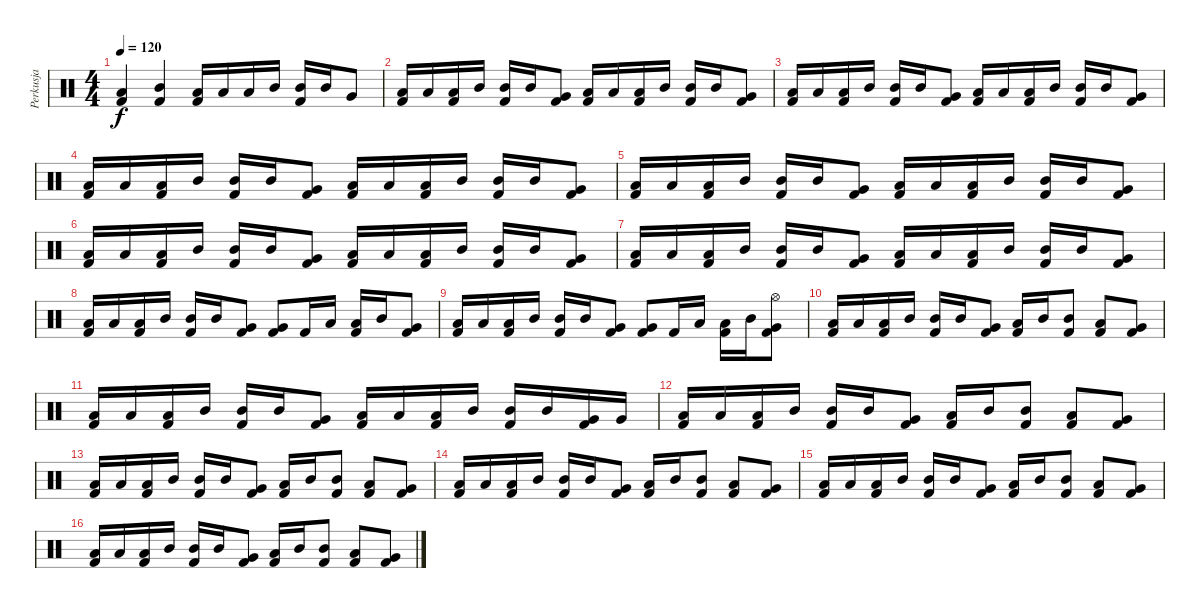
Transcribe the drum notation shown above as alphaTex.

\track ("Perkusja" "Perkusja") {instrument percussion}
\staff {score}
\articulation defaults
\ts (4 4)
\tempo 120
\clef neutral
\ks c
("Low Tom (hit)" "Kick (hit) 2").4{dy f} ("Mid Tom (hit)" "Kick (hit) 2").4 ("Low Tom (hit)" "Kick (hit) 2").16 "Low Tom (hit)".16 "Low Tom (hit)".16 "Mid Tom (hit)".16 ("Mid Tom (hit)" "Kick (hit) 2").16 "Mid Tom (hit)".16 "Very Low Tom (hit)".8 |
("Low Tom (hit)" "Kick (hit) 2").16 "Low Tom (hit)".16 ("Low Tom (hit)" "Kick (hit) 2").16 "Mid Tom (hit)".16 ("Mid Tom (hit)" "Kick (hit) 2").16 "Mid Tom (hit)".16 ("Very Low Tom (hit)" "Kick (hit) 2").8 ("Low Tom (hit)" "Kick (hit) 2").16 "Low Tom (hit)".16 ("Low Tom (hit)" "Kick (hit) 2").16 "Mid Tom (hit)".16 ("Mid Tom (hit)" "Kick (hit) 2").16 "Mid Tom (hit)".16 ("Very Low Tom (hit)" "Kick (hit) 2").8 |
("Low Tom (hit)" "Kick (hit) 2").16 "Low Tom (hit)".16 ("Low Tom (hit)" "Kick (hit) 2").16 "Mid Tom (hit)".16 ("Mid Tom (hit)" "Kick (hit) 2").16 "Mid Tom (hit)".16 ("Very Low Tom (hit)" "Kick (hit) 2").8 ("Low Tom (hit)" "Kick (hit) 2").16 "Low Tom (hit)".16 ("Low Tom (hit)" "Kick (hit) 2").16 "Mid Tom (hit)".16 ("Mid Tom (hit)" "Kick (hit) 2").16 "Mid Tom (hit)".16 ("Very Low Tom (hit)" "Kick (hit) 2").8 |
("Low Tom (hit)" "Kick (hit) 2").16 "Low Tom (hit)".16 ("Low Tom (hit)" "Kick (hit) 2").16 "Mid Tom (hit)".16 ("Mid Tom (hit)" "Kick (hit) 2").16 "Mid Tom (hit)".16 ("Very Low Tom (hit)" "Kick (hit) 2").8 ("Low Tom (hit)" "Kick (hit) 2").16 "Low Tom (hit)".16 ("Low Tom (hit)" "Kick (hit) 2").16 "Mid Tom (hit)".16 ("Mid Tom (hit)" "Kick (hit) 2").16 "Mid Tom (hit)".16 ("Very Low Tom (hit)" "Kick (hit) 2").8 |
("Low Tom (hit)" "Kick (hit) 2").16 "Low Tom (hit)".16 ("Low Tom (hit)" "Kick (hit) 2").16 "Mid Tom (hit)".16 ("Mid Tom (hit)" "Kick (hit) 2").16 "Mid Tom (hit)".16 ("Very Low Tom (hit)" "Kick (hit) 2").8 ("Low Tom (hit)" "Kick (hit) 2").16 "Low Tom (hit)".16 ("Low Tom (hit)" "Kick (hit) 2").16 "Mid Tom (hit)".16 ("Mid Tom (hit)" "Kick (hit) 2").16 "Mid Tom (hit)".16 ("Very Low Tom (hit)" "Kick (hit) 2").8 |
("Low Tom (hit)" "Kick (hit) 2").16 "Low Tom (hit)".16 ("Low Tom (hit)" "Kick (hit) 2").16 "Mid Tom (hit)".16 ("Mid Tom (hit)" "Kick (hit) 2").16 "Mid Tom (hit)".16 ("Very Low Tom (hit)" "Kick (hit) 2").8 ("Low Tom (hit)" "Kick (hit) 2").16 "Low Tom (hit)".16 ("Low Tom (hit)" "Kick (hit) 2").16 "Mid Tom (hit)".16 ("Mid Tom (hit)" "Kick (hit) 2").16 "Mid Tom (hit)".16 ("Very Low Tom (hit)" "Kick (hit) 2").8 |
("Low Tom (hit)" "Kick (hit) 2").16 "Low Tom (hit)".16 ("Low Tom (hit)" "Kick (hit) 2").16 "Mid Tom (hit)".16 ("Mid Tom (hit)" "Kick (hit) 2").16 "Mid Tom (hit)".16 ("Very Low Tom (hit)" "Kick (hit) 2").8 ("Low Tom (hit)" "Kick (hit) 2").16 "Low Tom (hit)".16 ("Low Tom (hit)" "Kick (hit) 2").16 "Mid Tom (hit)".16 ("Mid Tom (hit)" "Kick (hit) 2").16 "Mid Tom (hit)".16 ("Very Low Tom (hit)" "Kick (hit) 2").8 |
("Low Tom (hit)" "Kick (hit) 2").16 "Low Tom (hit)".16 ("Low Tom (hit)" "Kick (hit) 2").16 "Mid Tom (hit)".16 ("Mid Tom (hit)" "Kick (hit) 2").16 "Mid Tom (hit)".16 ("Very Low Tom (hit)" "Kick (hit) 2").8 ("Very Low Tom (hit)" "Kick (hit) 2").8 "Kick (hit) 2".16 "Low Tom (hit)".16 ("Low Tom (hit)" "Kick (hit) 2").16 "Mid Tom (hit)".16 ("Very Low Tom (hit)" "Kick (hit) 2").8 |
("Low Tom (hit)" "Kick (hit) 2").16 "Low Tom (hit)".16 ("Low Tom (hit)" "Kick (hit) 2").16 "Mid Tom (hit)".16 ("Mid Tom (hit)" "Kick (hit) 2").16 "Mid Tom (hit)".16 ("Very Low Tom (hit)" "Kick (hit) 2").8 ("Very Low Tom (hit)" "Kick (hit) 2").8 "Kick (hit) 2".16 "Low Tom (hit)".16 ("Low Tom (hit)" "Kick (hit) 2").16 "Mid Tom (hit)".16 ("Hi-Hat (open)" "Very Low Tom (hit)" "Kick (hit) 2").8 |
("Low Tom (hit)" "Kick (hit) 2").16 "Low Tom (hit)".16 ("Low Tom (hit)" "Kick (hit) 2").16 "Mid Tom (hit)".16 ("Mid Tom (hit)" "Kick (hit) 2").16 "Mid Tom (hit)".16 ("Very Low Tom (hit)" "Kick (hit) 2").8 ("Low Tom (hit)" "Kick (hit) 2").16 "Mid Tom (hit)".16 ("Mid Tom (hit)" "Kick (hit) 2").8 ("Low Tom (hit)" "Kick (hit) 2").8 ("Very Low Tom (hit)" "Kick (hit) 2").8 |
("Low Tom (hit)" "Kick (hit) 2").16 "Low Tom (hit)".16 ("Low Tom (hit)" "Kick (hit) 2").16 "Mid Tom (hit)".16 ("Mid Tom (hit)" "Kick (hit) 2").16 "Mid Tom (hit)".16 ("Very Low Tom (hit)" "Kick (hit) 2").8 ("Low Tom (hit)" "Kick (hit) 2").16 "Low Tom (hit)".16 ("Low Tom (hit)" "Kick (hit) 2").16 "Mid Tom (hit)".16 ("Mid Tom (hit)" "Kick (hit) 2").16 "Mid Tom (hit)".16 ("Very Low Tom (hit)" "Kick (hit) 2").16 "Very Low Tom (hit)".16 |
("Low Tom (hit)" "Kick (hit) 2").16 "Low Tom (hit)".16 ("Low Tom (hit)" "Kick (hit) 2").16 "Mid Tom (hit)".16 ("Mid Tom (hit)" "Kick (hit) 2").16 "Mid Tom (hit)".16 ("Very Low Tom (hit)" "Kick (hit) 2").8 ("Low Tom (hit)" "Kick (hit) 2").16 "Mid Tom (hit)".16 ("Mid Tom (hit)" "Kick (hit) 2").8 ("Low Tom (hit)" "Kick (hit) 2").8 ("Very Low Tom (hit)" "Kick (hit) 2").8 |
("Low Tom (hit)" "Kick (hit) 2").16 "Low Tom (hit)".16 ("Low Tom (hit)" "Kick (hit) 2").16 "Mid Tom (hit)".16 ("Mid Tom (hit)" "Kick (hit) 2").16 "Mid Tom (hit)".16 ("Very Low Tom (hit)" "Kick (hit) 2").8 ("Low Tom (hit)" "Kick (hit) 2").16 "Mid Tom (hit)".16 ("Mid Tom (hit)" "Kick (hit) 2").8 ("Low Tom (hit)" "Kick (hit) 2").8 ("Very Low Tom (hit)" "Kick (hit) 2").8 |
("Low Tom (hit)" "Kick (hit) 2").16 "Low Tom (hit)".16 ("Low Tom (hit)" "Kick (hit) 2").16 "Mid Tom (hit)".16 ("Mid Tom (hit)" "Kick (hit) 2").16 "Mid Tom (hit)".16 ("Very Low Tom (hit)" "Kick (hit) 2").8 ("Low Tom (hit)" "Kick (hit) 2").16 "Mid Tom (hit)".16 ("Mid Tom (hit)" "Kick (hit) 2").8 ("Low Tom (hit)" "Kick (hit) 2").8 ("Very Low Tom (hit)" "Kick (hit) 2").8 |
("Low Tom (hit)" "Kick (hit) 2").16 "Low Tom (hit)".16 ("Low Tom (hit)" "Kick (hit) 2").16 "Mid Tom (hit)".16 ("Mid Tom (hit)" "Kick (hit) 2").16 "Mid Tom (hit)".16 ("Very Low Tom (hit)" "Kick (hit) 2").8 ("Low Tom (hit)" "Kick (hit) 2").16 "Mid Tom (hit)".16 ("Mid Tom (hit)" "Kick (hit) 2").8 ("Low Tom (hit)" "Kick (hit) 2").8 ("Very Low Tom (hit)" "Kick (hit) 2").8 |
("Low Tom (hit)" "Kick (hit) 2").16 "Low Tom (hit)".16 ("Low Tom (hit)" "Kick (hit) 2").16 "Mid Tom (hit)".16 ("Mid Tom (hit)" "Kick (hit) 2").16 "Mid Tom (hit)".16 ("Very Low Tom (hit)" "Kick (hit) 2").8 ("Low Tom (hit)" "Kick (hit) 2").16 "Mid Tom (hit)".16 ("Mid Tom (hit)" "Kick (hit) 2").8 ("Low Tom (hit)" "Kick (hit) 2").8 ("Very Low Tom (hit)" "Kick (hit) 2").8
